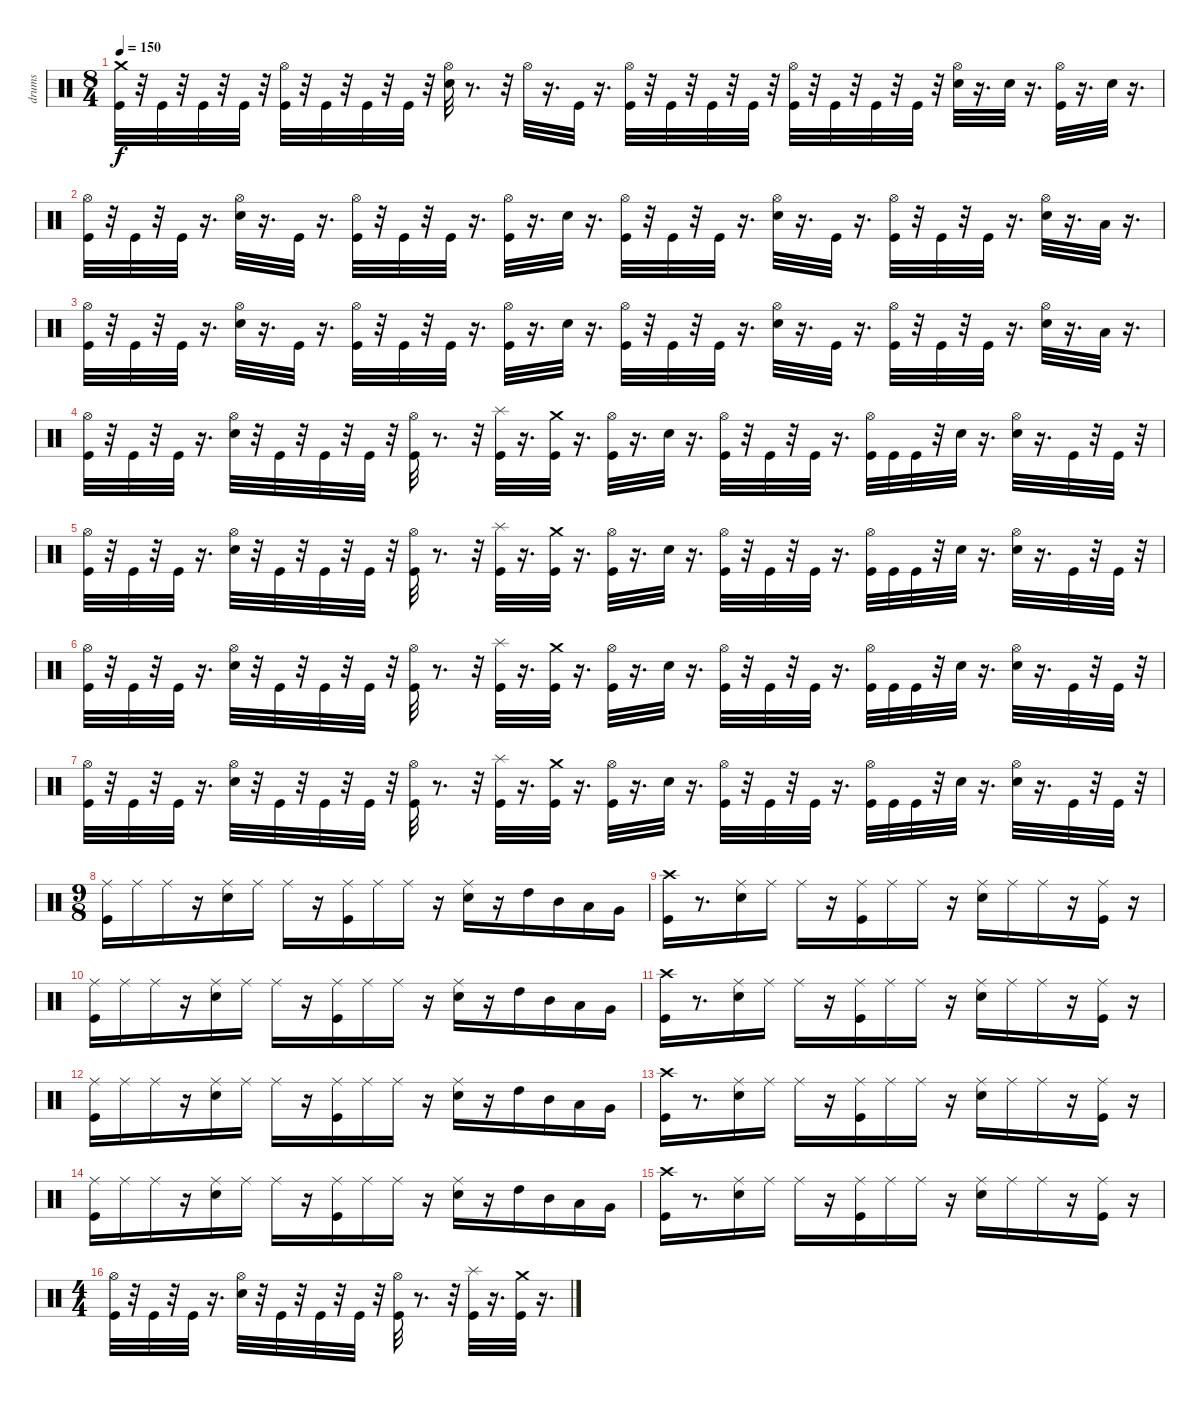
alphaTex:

\track ("drums" "drums") {instrument percussion}
\staff {score}
\articulation defaults
\ts (8 4)
\tempo 150
\clef neutral
\ks c
("Crash medium (hit)" "Kick (hit)").32{dy f} r.32 "Kick (hit)".32 r.32 "Kick (hit)".32 r.32 "Kick (hit)".32 r.32 ("Hi-Hat (open)" "Kick (hit)").32 r.32 "Kick (hit)".32 r.32 "Kick (hit)".32 r.32 "Kick (hit)".32 r.32 ("Hi-Hat (open)" "Electric Snare (hit)").32 r.8{d} r.32 "Hi-Hat (open)".32 r.16{d} "Kick (hit)".32 r.16{d} ("Hi-Hat (open)" "Kick (hit)").32 r.32 "Kick (hit)".32 r.32 "Kick (hit)".32 r.32 "Kick (hit)".32 r.32 ("Hi-Hat (open)" "Kick (hit)").32 r.32 "Kick (hit)".32 r.32 "Kick (hit)".32 r.32 "Kick (hit)".32 r.32 ("Hi-Hat (open)" "Electric Snare (hit)").32 r.16{d} "Electric Snare (hit)".32 r.16{d} ("Kick (hit)" "Hi-Hat (open)").32 r.16{d} "Electric Snare (hit)".32 r.16{d} |
("Hi-Hat (open)" "Kick (hit)").32 r.32 "Kick (hit)".32 r.32 "Kick (hit)".32 r.16{d} ("Hi-Hat (open)" "Electric Snare (hit)").32 r.16{d} "Kick (hit)".32 r.16{d} ("Hi-Hat (open)" "Kick (hit)").32 r.32 "Kick (hit)".32 r.32 "Kick (hit)".32 r.16{d} ("Hi-Hat (open)" "Kick (hit)").32 r.16{d} "Electric Snare (hit)".32 r.16{d} ("Hi-Hat (open)" "Kick (hit)").32 r.32 "Kick (hit)".32 r.32 "Kick (hit)".32 r.16{d} ("Hi-Hat (open)" "Electric Snare (hit)").32 r.16{d} "Kick (hit)".32 r.16{d} ("Hi-Hat (open)" "Kick (hit)").32 r.32 "Kick (hit)".32 r.32 "Kick (hit)".32 r.16{d} ("Hi-Hat (open)" "Electric Snare (hit)").32 r.16{d} "Low Tom (hit)".32 r.16{d} |
("Hi-Hat (open)" "Kick (hit)").32 r.32 "Kick (hit)".32 r.32 "Kick (hit)".32 r.16{d} ("Hi-Hat (open)" "Electric Snare (hit)").32 r.16{d} "Kick (hit)".32 r.16{d} ("Hi-Hat (open)" "Kick (hit)").32 r.32 "Kick (hit)".32 r.32 "Kick (hit)".32 r.16{d} ("Hi-Hat (open)" "Kick (hit)").32 r.16{d} "Electric Snare (hit)".32 r.16{d} ("Hi-Hat (open)" "Kick (hit)").32 r.32 "Kick (hit)".32 r.32 "Kick (hit)".32 r.16{d} ("Hi-Hat (open)" "Electric Snare (hit)").32 r.16{d} "Kick (hit)".32 r.16{d} ("Hi-Hat (open)" "Kick (hit)").32 r.32 "Kick (hit)".32 r.32 "Kick (hit)".32 r.16{d} ("Hi-Hat (open)" "Electric Snare (hit)").32 r.16{d} "Low Tom (hit)".32 r.16{d} |
("Hi-Hat (open)" "Kick (hit)").32 r.32 "Kick (hit)".32 r.32 "Kick (hit)".32 r.16{d} ("Hi-Hat (open)" "Electric Snare (hit)").32 r.32 "Kick (hit)".32 r.32 "Kick (hit)".32 r.32 "Kick (hit)".32 r.32 ("Hi-Hat (open)" "Kick (hit)").32 r.8{d} r.32 ("Splash (hit)" "Kick (hit)").32 r.16{d} ("Crash medium (hit)" "Kick (hit)").32 r.16{d} ("Hi-Hat (open)" "Kick (hit)").32 r.16{d} "Electric Snare (hit)".32 r.16{d} ("Hi-Hat (open)" "Kick (hit)").32 r.32 "Kick (hit)".32 r.32 "Kick (hit)".32 r.16{d} ("Hi-Hat (open)" "Kick (hit)").32 "Kick (hit)".32 "Kick (hit)".32 r.32 "Electric Snare (hit)".32 r.16{d} ("Hi-Hat (open)" "Electric Snare (hit)").32 r.16{d} "Kick (hit)".32 r.32 "Kick (hit)".32 r.32 |
("Hi-Hat (open)" "Kick (hit)").32 r.32 "Kick (hit)".32 r.32 "Kick (hit)".32 r.16{d} ("Hi-Hat (open)" "Electric Snare (hit)").32 r.32 "Kick (hit)".32 r.32 "Kick (hit)".32 r.32 "Kick (hit)".32 r.32 ("Hi-Hat (open)" "Kick (hit)").32 r.8{d} r.32 ("Splash (hit)" "Kick (hit)").32 r.16{d} ("Crash medium (hit)" "Kick (hit)").32 r.16{d} ("Hi-Hat (open)" "Kick (hit)").32 r.16{d} "Electric Snare (hit)".32 r.16{d} ("Hi-Hat (open)" "Kick (hit)").32 r.32 "Kick (hit)".32 r.32 "Kick (hit)".32 r.16{d} ("Hi-Hat (open)" "Kick (hit)").32 "Kick (hit)".32 "Kick (hit)".32 r.32 "Electric Snare (hit)".32 r.16{d} ("Hi-Hat (open)" "Electric Snare (hit)").32 r.16{d} "Kick (hit)".32 r.32 "Kick (hit)".32 r.32 |
("Hi-Hat (open)" "Kick (hit)").32 r.32 "Kick (hit)".32 r.32 "Kick (hit)".32 r.16{d} ("Hi-Hat (open)" "Electric Snare (hit)").32 r.32 "Kick (hit)".32 r.32 "Kick (hit)".32 r.32 "Kick (hit)".32 r.32 ("Hi-Hat (open)" "Kick (hit)").32 r.8{d} r.32 ("Splash (hit)" "Kick (hit)").32 r.16{d} ("Crash medium (hit)" "Kick (hit)").32 r.16{d} ("Hi-Hat (open)" "Kick (hit)").32 r.16{d} "Electric Snare (hit)".32 r.16{d} ("Hi-Hat (open)" "Kick (hit)").32 r.32 "Kick (hit)".32 r.32 "Kick (hit)".32 r.16{d} ("Hi-Hat (open)" "Kick (hit)").32 "Kick (hit)".32 "Kick (hit)".32 r.32 "Electric Snare (hit)".32 r.16{d} ("Hi-Hat (open)" "Electric Snare (hit)").32 r.16{d} "Kick (hit)".32 r.32 "Kick (hit)".32 r.32 |
("Hi-Hat (open)" "Kick (hit)").32 r.32 "Kick (hit)".32 r.32 "Kick (hit)".32 r.16{d} ("Hi-Hat (open)" "Electric Snare (hit)").32 r.32 "Kick (hit)".32 r.32 "Kick (hit)".32 r.32 "Kick (hit)".32 r.32 ("Hi-Hat (open)" "Kick (hit)").32 r.8{d} r.32 ("Splash (hit)" "Kick (hit)").32 r.16{d} ("Crash medium (hit)" "Kick (hit)").32 r.16{d} ("Hi-Hat (open)" "Kick (hit)").32 r.16{d} "Electric Snare (hit)".32 r.16{d} ("Hi-Hat (open)" "Kick (hit)").32 r.32 "Kick (hit)".32 r.32 "Kick (hit)".32 r.16{d} ("Hi-Hat (open)" "Kick (hit)").32 "Kick (hit)".32 "Kick (hit)".32 r.32 "Electric Snare (hit)".32 r.16{d} ("Hi-Hat (open)" "Electric Snare (hit)").32 r.16{d} "Kick (hit)".32 r.32 "Kick (hit)".32 r.32 |
\ts (9 8)
("Ride (middle)" "Kick (hit)").16 "Ride (middle)".16 "Ride (middle)".16 r.16 ("Ride (middle)" "Electric Snare (hit)").16 "Ride (middle)".16 "Ride (middle)".16 r.16 ("Ride (middle)" "Kick (hit)").16 "Ride (middle)".16 "Ride (middle)".16 r.16 ("Ride (middle)" "Electric Snare (hit)").16 r.16 "High Tom (hit)".16 "Mid Tom (hit)".16 "Low Tom (hit)".16 "Very Low Tom (hit)".16 |
("Crash high (hit)" "Kick (hit)").16 r.8{d} ("Ride (middle)" "Electric Snare (hit)").16 "Ride (middle)".16 "Ride (middle)".16 r.16 ("Ride (middle)" "Kick (hit)").16 "Ride (middle)".16 "Ride (middle)".16 r.16 ("Ride (middle)" "Electric Snare (hit)").16 "Ride (middle)".16 "Ride (middle)".16 r.16 ("Ride (middle)" "Kick (hit)").16 r.16 |
("Ride (middle)" "Kick (hit)").16 "Ride (middle)".16 "Ride (middle)".16 r.16 ("Ride (middle)" "Electric Snare (hit)").16 "Ride (middle)".16 "Ride (middle)".16 r.16 ("Ride (middle)" "Kick (hit)").16 "Ride (middle)".16 "Ride (middle)".16 r.16 ("Ride (middle)" "Electric Snare (hit)").16 r.16 "High Tom (hit)".16 "Mid Tom (hit)".16 "Low Tom (hit)".16 "Very Low Tom (hit)".16 |
("Crash high (hit)" "Kick (hit)").16 r.8{d} ("Ride (middle)" "Electric Snare (hit)").16 "Ride (middle)".16 "Ride (middle)".16 r.16 ("Ride (middle)" "Kick (hit)").16 "Ride (middle)".16 "Ride (middle)".16 r.16 ("Ride (middle)" "Electric Snare (hit)").16 "Ride (middle)".16 "Ride (middle)".16 r.16 ("Ride (middle)" "Kick (hit)").16 r.16 |
("Ride (middle)" "Kick (hit)").16 "Ride (middle)".16 "Ride (middle)".16 r.16 ("Ride (middle)" "Electric Snare (hit)").16 "Ride (middle)".16 "Ride (middle)".16 r.16 ("Ride (middle)" "Kick (hit)").16 "Ride (middle)".16 "Ride (middle)".16 r.16 ("Ride (middle)" "Electric Snare (hit)").16 r.16 "High Tom (hit)".16 "Mid Tom (hit)".16 "Low Tom (hit)".16 "Very Low Tom (hit)".16 |
("Crash high (hit)" "Kick (hit)").16 r.8{d} ("Ride (middle)" "Electric Snare (hit)").16 "Ride (middle)".16 "Ride (middle)".16 r.16 ("Ride (middle)" "Kick (hit)").16 "Ride (middle)".16 "Ride (middle)".16 r.16 ("Ride (middle)" "Electric Snare (hit)").16 "Ride (middle)".16 "Ride (middle)".16 r.16 ("Ride (middle)" "Kick (hit)").16 r.16 |
("Ride (middle)" "Kick (hit)").16 "Ride (middle)".16 "Ride (middle)".16 r.16 ("Ride (middle)" "Electric Snare (hit)").16 "Ride (middle)".16 "Ride (middle)".16 r.16 ("Ride (middle)" "Kick (hit)").16 "Ride (middle)".16 "Ride (middle)".16 r.16 ("Ride (middle)" "Electric Snare (hit)").16 r.16 "High Tom (hit)".16 "Mid Tom (hit)".16 "Low Tom (hit)".16 "Very Low Tom (hit)".16 |
("Crash high (hit)" "Kick (hit)").16 r.8{d} ("Ride (middle)" "Electric Snare (hit)").16 "Ride (middle)".16 "Ride (middle)".16 r.16 ("Ride (middle)" "Kick (hit)").16 "Ride (middle)".16 "Ride (middle)".16 r.16 ("Ride (middle)" "Electric Snare (hit)").16 "Ride (middle)".16 "Ride (middle)".16 r.16 ("Ride (middle)" "Kick (hit)").16 r.16 |
\ts (4 4)
("Hi-Hat (open)" "Kick (hit)").32 r.32 "Kick (hit)".32 r.32 "Kick (hit)".32 r.16{d} ("Hi-Hat (open)" "Electric Snare (hit)").32 r.32 "Kick (hit)".32 r.32 "Kick (hit)".32 r.32 "Kick (hit)".32 r.32 ("Hi-Hat (open)" "Kick (hit)").32 r.8{d} r.32 ("Splash (hit)" "Kick (hit)").32 r.16{d} ("Crash medium (hit)" "Kick (hit)").32 r.16{d}
